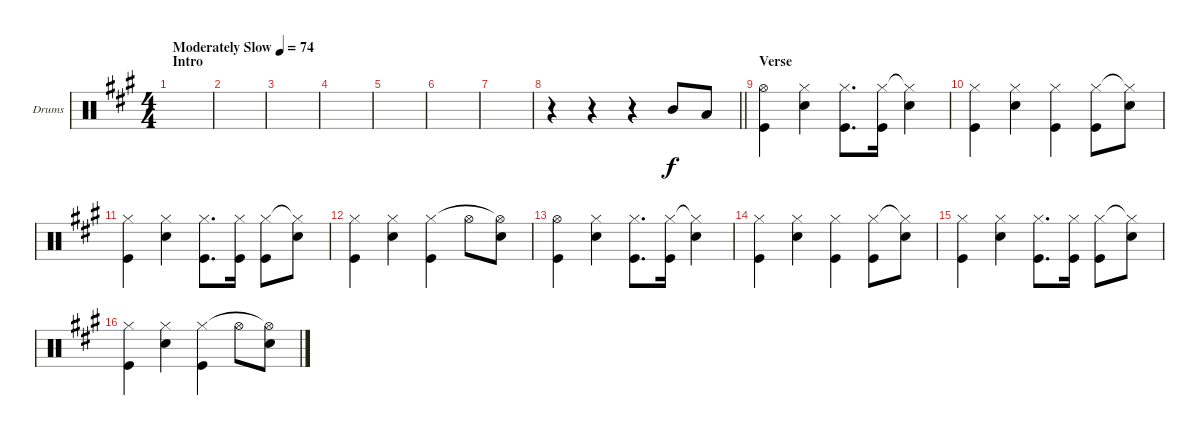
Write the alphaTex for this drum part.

\bracketExtendMode groupsimilarinstruments
\firstSystemTrackNameOrientation horizontal
\otherSystemsTrackNameOrientation horizontal
\track ("Drumkit" "Drums") {instrument percussion}
\staff {score}
\articulation defaults
\ts (4 4)
\beaming (8 2 2 2 2)
\section ("" "Intro")
\tempo (74 "Moderately Slow")
\clef neutral
\scale
0.529412
\ks a
|
\scale
0.235294 |
\scale
0.235294 |
\scale
0.333333 |
\scale
0.333333 |
\scale
0.333333 |
\scale
0.333333 |
\scale
0.333333
\barLineRight lightlight
r.4 r.4 r.4 "Mid Tom (hit)".8 "Low Tom (hit)".8 |
\section ("" "Verse")
\scale
0.333333 ("Kick (hit)" "Hi-Hat (open)").4 ("Snare (hit) 2" "Hi-Hat (closed)").4 ("Kick (hit)" "Hi-Hat (closed)").8{d} ("Kick (hit)" "Hi-Hat (closed)").16 ("Snare (hit) 2" "Hi-Hat (closed)"{t}).4 |
\scale
0.333333 ("Kick (hit)" "Hi-Hat (closed)").4 ("Snare (hit) 2" "Hi-Hat (closed)").4 ("Kick (hit)" "Hi-Hat (closed)").4 ("Kick (hit)" "Hi-Hat (closed)").8 ("Snare (hit) 2" "Hi-Hat (closed)"{t}).8 |
\scale
0.333333 ("Kick (hit)" "Hi-Hat (closed)").4 ("Snare (hit) 2" "Hi-Hat (closed)").4 ("Kick (hit)" "Hi-Hat (closed)").8{d} ("Kick (hit)" "Hi-Hat (closed)").16 ("Kick (hit)" "Hi-Hat (closed)").8 ("Snare (hit) 2" "Hi-Hat (closed)"{t}).8 |
\scale
0.333333 ("Kick (hit)" "Hi-Hat (closed)").4 ("Snare (hit) 2" "Hi-Hat (closed)").4 ("Kick (hit)" "Hi-Hat (closed)").4 "Hi-Hat (open)".8 ("Snare (hit) 2" "Hi-Hat (open)"{t}).8 |
\scale
0.333333 ("Kick (hit)" "Hi-Hat (open)").4 ("Snare (hit) 2" "Hi-Hat (closed)").4 ("Kick (hit)" "Hi-Hat (closed)").8{d} ("Kick (hit)" "Hi-Hat (closed)").16 ("Snare (hit) 2" "Hi-Hat (closed)"{t}).4 |
\scale
0.333333 ("Kick (hit)" "Hi-Hat (closed)").4 ("Snare (hit) 2" "Hi-Hat (closed)").4 ("Kick (hit)" "Hi-Hat (closed)").4 ("Kick (hit)" "Hi-Hat (closed)").8 ("Snare (hit) 2" "Hi-Hat (closed)"{t}).8 |
\scale
0.333333 ("Kick (hit)" "Hi-Hat (closed)").4 ("Snare (hit) 2" "Hi-Hat (closed)").4 ("Kick (hit)" "Hi-Hat (closed)").8{d} ("Kick (hit)" "Hi-Hat (closed)").16 ("Kick (hit)" "Hi-Hat (closed)").8 ("Snare (hit) 2" "Hi-Hat (closed)"{t}).8 |
\scale
0.333333 ("Kick (hit)" "Hi-Hat (closed)").4 ("Snare (hit) 2" "Hi-Hat (closed)").4 ("Kick (hit)" "Hi-Hat (closed)").4 "Hi-Hat (open)".8 ("Snare (hit) 2" "Hi-Hat (open)"{t}).8
